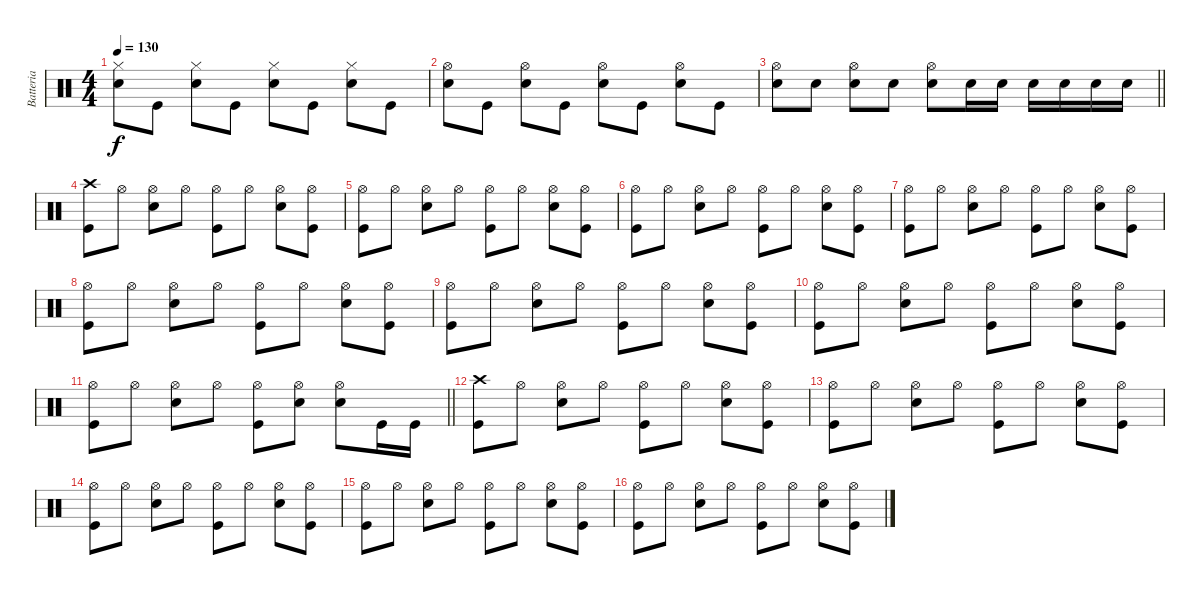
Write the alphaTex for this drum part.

\track ("Batteria" "Batteria") {instrument percussion}
\staff {score}
\articulation defaults
\ts (4 4)
\tempo 130
\clef neutral
\ks c
("Hi-Hat (closed)" "Snare (hit) 2").8{dy f} "Kick (hit)".8 ("Hi-Hat (closed)" "Snare (hit) 2").8 "Kick (hit)".8 ("Hi-Hat (closed)" "Snare (hit) 2").8 "Kick (hit)".8 ("Hi-Hat (closed)" "Snare (hit) 2").8 "Kick (hit)".8 |
("Hi-Hat (open)" "Snare (hit) 2").8 "Kick (hit)".8 ("Hi-Hat (open)" "Snare (hit) 2").8 "Kick (hit)".8 ("Hi-Hat (open)" "Snare (hit) 2").8 "Kick (hit)".8 ("Hi-Hat (open)" "Snare (hit) 2").8 "Kick (hit)".8 |
\barLineRight lightlight
("Snare (hit) 2" "Hi-Hat (open)").8 "Snare (hit) 2".8 ("Snare (hit) 2" "Hi-Hat (open)").8 "Snare (hit) 2".8 ("Snare (hit) 2" "Hi-Hat (open)").8 "Snare (hit) 2".16 "Snare (hit) 2".16 "Snare (hit) 2".16 "Snare (hit) 2".16 "Snare (hit) 2".16 "Snare (hit) 2".16 |
("Kick (hit)" "Crash high (hit)").8 "Hi-Hat (open)".8 ("Snare (hit) 2" "Hi-Hat (open)").8 "Hi-Hat (open)".8 ("Kick (hit)" "Hi-Hat (open)").8 "Hi-Hat (open)".8 ("Snare (hit) 2" "Hi-Hat (open)").8 ("Kick (hit)" "Hi-Hat (open)").8 |
("Kick (hit)" "Hi-Hat (open)").8 "Hi-Hat (open)".8 ("Snare (hit) 2" "Hi-Hat (open)").8 "Hi-Hat (open)".8 ("Kick (hit)" "Hi-Hat (open)").8 "Hi-Hat (open)".8 ("Snare (hit) 2" "Hi-Hat (open)").8 ("Kick (hit)" "Hi-Hat (open)").8 |
("Kick (hit)" "Hi-Hat (open)").8 "Hi-Hat (open)".8 ("Snare (hit) 2" "Hi-Hat (open)").8 "Hi-Hat (open)".8 ("Kick (hit)" "Hi-Hat (open)").8 "Hi-Hat (open)".8 ("Snare (hit) 2" "Hi-Hat (open)").8 ("Kick (hit)" "Hi-Hat (open)").8 |
("Kick (hit)" "Hi-Hat (open)").8 "Hi-Hat (open)".8 ("Snare (hit) 2" "Hi-Hat (open)").8 "Hi-Hat (open)".8 ("Kick (hit)" "Hi-Hat (open)").8 "Hi-Hat (open)".8 ("Snare (hit) 2" "Hi-Hat (open)").8 ("Kick (hit)" "Hi-Hat (open)").8 |
("Kick (hit)" "Hi-Hat (open)").8 "Hi-Hat (open)".8 ("Snare (hit) 2" "Hi-Hat (open)").8 "Hi-Hat (open)".8 ("Kick (hit)" "Hi-Hat (open)").8 "Hi-Hat (open)".8 ("Snare (hit) 2" "Hi-Hat (open)").8 ("Kick (hit)" "Hi-Hat (open)").8 |
("Kick (hit)" "Hi-Hat (open)").8 "Hi-Hat (open)".8 ("Snare (hit) 2" "Hi-Hat (open)").8 "Hi-Hat (open)".8 ("Kick (hit)" "Hi-Hat (open)").8 "Hi-Hat (open)".8 ("Snare (hit) 2" "Hi-Hat (open)").8 ("Kick (hit)" "Hi-Hat (open)").8 |
("Kick (hit)" "Hi-Hat (open)").8 "Hi-Hat (open)".8 ("Snare (hit) 2" "Hi-Hat (open)").8 "Hi-Hat (open)".8 ("Kick (hit)" "Hi-Hat (open)").8 "Hi-Hat (open)".8 ("Snare (hit) 2" "Hi-Hat (open)").8 ("Kick (hit)" "Hi-Hat (open)").8 |
\barLineRight lightlight
("Kick (hit)" "Hi-Hat (open)").8 "Hi-Hat (open)".8 ("Snare (hit) 2" "Hi-Hat (open)").8 "Hi-Hat (open)".8 ("Hi-Hat (open)" "Kick (hit)").8 ("Snare (hit) 2" "Hi-Hat (open)").8 ("Snare (hit) 2" "Hi-Hat (open)").8 "Kick (hit)".16 "Kick (hit)".16 |
("Kick (hit)" "Crash high (hit)").8 "Hi-Hat (open)".8 ("Snare (hit) 2" "Hi-Hat (open)").8 "Hi-Hat (open)".8 ("Kick (hit)" "Hi-Hat (open)").8 "Hi-Hat (open)".8 ("Snare (hit) 2" "Hi-Hat (open)").8 ("Kick (hit)" "Hi-Hat (open)").8 |
("Kick (hit)" "Hi-Hat (open)").8 "Hi-Hat (open)".8 ("Snare (hit) 2" "Hi-Hat (open)").8 "Hi-Hat (open)".8 ("Kick (hit)" "Hi-Hat (open)").8 "Hi-Hat (open)".8 ("Snare (hit) 2" "Hi-Hat (open)").8 ("Kick (hit)" "Hi-Hat (open)").8 |
("Kick (hit)" "Hi-Hat (open)").8 "Hi-Hat (open)".8 ("Snare (hit) 2" "Hi-Hat (open)").8 "Hi-Hat (open)".8 ("Kick (hit)" "Hi-Hat (open)").8 "Hi-Hat (open)".8 ("Snare (hit) 2" "Hi-Hat (open)").8 ("Kick (hit)" "Hi-Hat (open)").8 |
("Kick (hit)" "Hi-Hat (open)").8 "Hi-Hat (open)".8 ("Snare (hit) 2" "Hi-Hat (open)").8 "Hi-Hat (open)".8 ("Kick (hit)" "Hi-Hat (open)").8 "Hi-Hat (open)".8 ("Snare (hit) 2" "Hi-Hat (open)").8 ("Kick (hit)" "Hi-Hat (open)").8 |
("Kick (hit)" "Hi-Hat (open)").8 "Hi-Hat (open)".8 ("Snare (hit) 2" "Hi-Hat (open)").8 "Hi-Hat (open)".8 ("Kick (hit)" "Hi-Hat (open)").8 "Hi-Hat (open)".8 ("Snare (hit) 2" "Hi-Hat (open)").8 ("Kick (hit)" "Hi-Hat (open)").8
